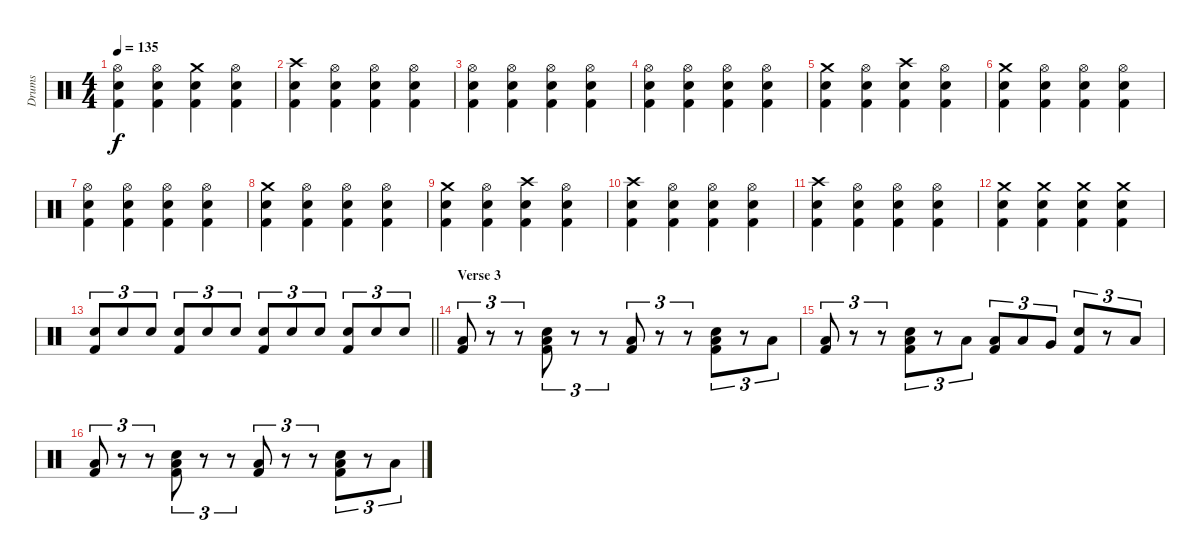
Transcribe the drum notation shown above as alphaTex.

\track ("Drums" "Drums") {instrument percussion}
\staff {score}
\articulation defaults
\ts (4 4)
\tempo 135
\clef neutral
\ks c
("Hi-Hat (open)" "Electric Snare (hit)" "Kick (hit) 2").4{dy f} ("Hi-Hat (open)" "Electric Snare (hit)" "Kick (hit) 2").4 ("Crash medium (hit)" "Electric Snare (hit)" "Kick (hit) 2").4 ("Hi-Hat (open)" "Electric Snare (hit)" "Kick (hit) 2").4 |
("Crash high (hit)" "Electric Snare (hit)" "Kick (hit) 2").4 ("Hi-Hat (open)" "Electric Snare (hit)" "Kick (hit) 2").4 ("Hi-Hat (open)" "Electric Snare (hit)" "Kick (hit) 2").4 ("Hi-Hat (open)" "Electric Snare (hit)" "Kick (hit) 2").4 |
("Hi-Hat (open)" "Electric Snare (hit)" "Kick (hit) 2").4 ("Hi-Hat (open)" "Electric Snare (hit)" "Kick (hit) 2").4 ("Hi-Hat (open)" "Electric Snare (hit)" "Kick (hit) 2").4 ("Hi-Hat (open)" "Electric Snare (hit)" "Kick (hit) 2").4 |
("Hi-Hat (open)" "Electric Snare (hit)" "Kick (hit) 2").4 ("Hi-Hat (open)" "Electric Snare (hit)" "Kick (hit) 2").4 ("Hi-Hat (open)" "Electric Snare (hit)" "Kick (hit) 2").4 ("Hi-Hat (open)" "Electric Snare (hit)" "Kick (hit) 2").4 |
("Crash medium (hit)" "Electric Snare (hit)" "Kick (hit) 2").4 ("Hi-Hat (open)" "Electric Snare (hit)" "Kick (hit) 2").4 ("Crash high (hit)" "Electric Snare (hit)" "Kick (hit) 2").4 ("Hi-Hat (open)" "Electric Snare (hit)" "Kick (hit) 2").4 |
("Crash medium (hit)" "Electric Snare (hit)" "Kick (hit) 2").4 ("Hi-Hat (open)" "Electric Snare (hit)" "Kick (hit) 2").4 ("Hi-Hat (open)" "Electric Snare (hit)" "Kick (hit) 2").4 ("Hi-Hat (open)" "Electric Snare (hit)" "Kick (hit) 2").4 |
("Hi-Hat (open)" "Electric Snare (hit)" "Kick (hit) 2").4 ("Hi-Hat (open)" "Electric Snare (hit)" "Kick (hit) 2").4 ("Hi-Hat (open)" "Electric Snare (hit)" "Kick (hit) 2").4 ("Hi-Hat (open)" "Electric Snare (hit)" "Kick (hit) 2").4 |
("Crash medium (hit)" "Electric Snare (hit)" "Kick (hit) 2").4 ("Hi-Hat (open)" "Electric Snare (hit)" "Kick (hit) 2").4 ("Hi-Hat (open)" "Electric Snare (hit)" "Kick (hit) 2").4 ("Hi-Hat (open)" "Electric Snare (hit)" "Kick (hit) 2").4 |
("Crash medium (hit)" "Electric Snare (hit)" "Kick (hit) 2").4 ("Hi-Hat (open)" "Electric Snare (hit)" "Kick (hit) 2").4 ("Crash high (hit)" "Electric Snare (hit)" "Kick (hit) 2").4 ("Hi-Hat (open)" "Electric Snare (hit)" "Kick (hit) 2").4 |
("Crash high (hit)" "Electric Snare (hit)" "Kick (hit) 2").4 ("Hi-Hat (open)" "Electric Snare (hit)" "Kick (hit) 2").4 ("Hi-Hat (open)" "Electric Snare (hit)" "Kick (hit) 2").4 ("Hi-Hat (open)" "Electric Snare (hit)" "Kick (hit) 2").4 |
("Crash high (hit)" "Electric Snare (hit)" "Kick (hit) 2").4 ("Hi-Hat (open)" "Electric Snare (hit)" "Kick (hit) 2").4 ("Hi-Hat (open)" "Electric Snare (hit)" "Kick (hit) 2").4 ("Hi-Hat (open)" "Electric Snare (hit)" "Kick (hit) 2").4 |
("Crash medium (hit)" "Electric Snare (hit)" "Kick (hit) 2").4 ("Crash medium (hit)" "Electric Snare (hit)" "Kick (hit) 2").4 ("Crash medium (hit)" "Electric Snare (hit)" "Kick (hit) 2").4 ("Crash medium (hit)" "Electric Snare (hit)" "Kick (hit) 2").4 |
\barLineRight lightlight
("Electric Snare (hit)" "Kick (hit) 2").8{tu (3 2)} "Electric Snare (hit)".8{tu (3 2)} "Electric Snare (hit)".8{tu (3 2)} ("Electric Snare (hit)" "Kick (hit) 2").8{tu (3 2)} "Electric Snare (hit)".8{tu (3 2)} "Electric Snare (hit)".8{tu (3 2)} ("Electric Snare (hit)" "Kick (hit) 2").8{tu (3 2)} "Electric Snare (hit)".8{tu (3 2)} "Electric Snare (hit)".8{tu (3 2)} ("Electric Snare (hit)" "Kick (hit) 2").8{tu (3 2)} "Electric Snare (hit)".8{tu (3 2)} "Electric Snare (hit)".8{tu (3 2)} |
\section ("" "Verse 3")
("Low Floor Tom (hit)" "Kick (hit) 2").8{tu (3 2)} r.8{tu (3 2)} r.8{tu (3 2)} ("Electric Snare (hit)" "Low Floor Tom (hit)" "Kick (hit) 2").8{tu (3 2)} r.8{tu (3 2)} r.8{tu (3 2)} ("Low Floor Tom (hit)" "Kick (hit) 2").8{tu (3 2)} r.8{tu (3 2)} r.8{tu (3 2)} ("Electric Snare (hit)" "Low Floor Tom (hit)" "Kick (hit) 2").8{tu (3 2)} r.8{tu (3 2)} "Low Floor Tom (hit)".8{tu (3 2)} |
("Low Floor Tom (hit)" "Kick (hit) 2").8{tu (3 2)} r.8{tu (3 2)} r.8{tu (3 2)} ("Electric Snare (hit)" "Low Floor Tom (hit)" "Kick (hit) 2").8{tu (3 2)} r.8{tu (3 2)} "Low Floor Tom (hit)".8{tu (3 2)} ("Low Floor Tom (hit)" "Kick (hit) 2").8{tu (3 2)} "Low Tom (hit)".8{tu (3 2)} "Very Low Tom (hit)".8{tu (3 2)} ("Electric Snare (hit)" "Kick (hit) 2").8{tu (3 2)} r.8{tu (3 2)} "Low Floor Tom (hit)".8{tu (3 2)} |
("Low Floor Tom (hit)" "Kick (hit) 2").8{tu (3 2)} r.8{tu (3 2)} r.8{tu (3 2)} ("Electric Snare (hit)" "Low Floor Tom (hit)" "Kick (hit) 2").8{tu (3 2)} r.8{tu (3 2)} r.8{tu (3 2)} ("Low Floor Tom (hit)" "Kick (hit) 2").8{tu (3 2)} r.8{tu (3 2)} r.8{tu (3 2)} ("Electric Snare (hit)" "Low Floor Tom (hit)" "Kick (hit) 2").8{tu (3 2)} r.8{tu (3 2)} "Low Floor Tom (hit)".8{tu (3 2)}
